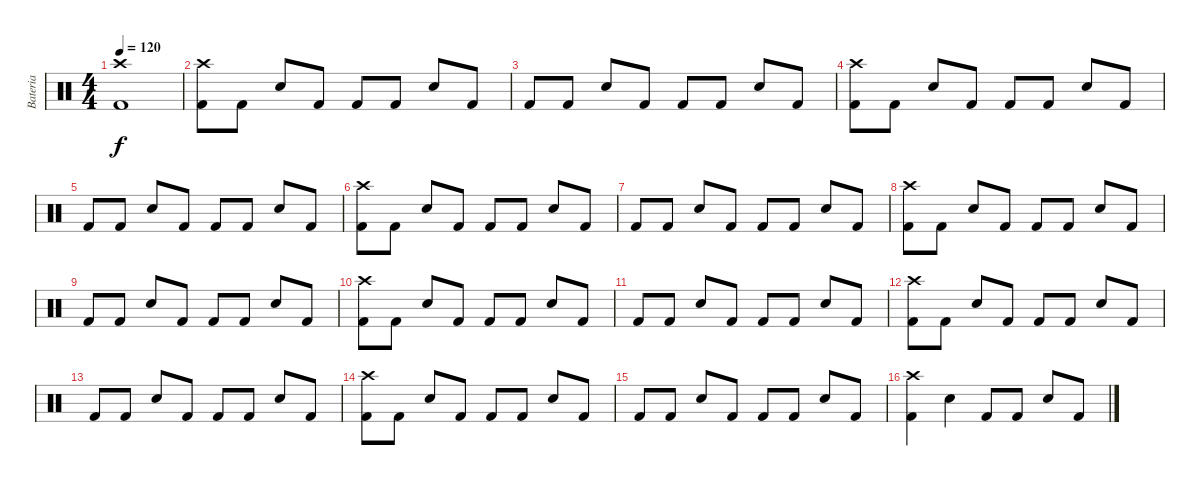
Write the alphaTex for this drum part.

\track ("Bateria" "Bateria") {instrument percussion}
\staff {score}
\articulation defaults
\ts (4 4)
\tempo 120
\clef neutral
\ks c
("Kick (hit) 2" "Crash high (hit)").1{dy f} |
("Kick (hit) 2" "Crash high (hit)").8 "Kick (hit) 2".8 "Snare (hit) 2".8 "Kick (hit) 2".8 "Kick (hit) 2".8 "Kick (hit) 2".8 "Snare (hit) 2".8 "Kick (hit) 2".8 |
"Kick (hit) 2".8 "Kick (hit) 2".8 "Snare (hit) 2".8 "Kick (hit) 2".8 "Kick (hit) 2".8 "Kick (hit) 2".8 "Snare (hit) 2".8 "Kick (hit) 2".8 |
("Kick (hit) 2" "Crash high (hit)").8 "Kick (hit) 2".8 "Snare (hit) 2".8 "Kick (hit) 2".8 "Kick (hit) 2".8 "Kick (hit) 2".8 "Snare (hit) 2".8 "Kick (hit) 2".8 |
"Kick (hit) 2".8 "Kick (hit) 2".8 "Snare (hit) 2".8 "Kick (hit) 2".8 "Kick (hit) 2".8 "Kick (hit) 2".8 "Snare (hit) 2".8 "Kick (hit) 2".8 |
("Kick (hit) 2" "Crash high (hit)").8 "Kick (hit) 2".8 "Snare (hit) 2".8 "Kick (hit) 2".8 "Kick (hit) 2".8 "Kick (hit) 2".8 "Snare (hit) 2".8 "Kick (hit) 2".8 |
"Kick (hit) 2".8 "Kick (hit) 2".8 "Snare (hit) 2".8 "Kick (hit) 2".8 "Kick (hit) 2".8 "Kick (hit) 2".8 "Snare (hit) 2".8 "Kick (hit) 2".8 |
("Kick (hit) 2" "Crash high (hit)").8 "Kick (hit) 2".8 "Snare (hit) 2".8 "Kick (hit) 2".8 "Kick (hit) 2".8 "Kick (hit) 2".8 "Snare (hit) 2".8 "Kick (hit) 2".8 |
"Kick (hit) 2".8 "Kick (hit) 2".8 "Snare (hit) 2".8 "Kick (hit) 2".8 "Kick (hit) 2".8 "Kick (hit) 2".8 "Snare (hit) 2".8 "Kick (hit) 2".8 |
("Kick (hit) 2" "Crash high (hit)").8 "Kick (hit) 2".8 "Snare (hit) 2".8 "Kick (hit) 2".8 "Kick (hit) 2".8 "Kick (hit) 2".8 "Snare (hit) 2".8 "Kick (hit) 2".8 |
"Kick (hit) 2".8 "Kick (hit) 2".8 "Snare (hit) 2".8 "Kick (hit) 2".8 "Kick (hit) 2".8 "Kick (hit) 2".8 "Snare (hit) 2".8 "Kick (hit) 2".8 |
("Kick (hit) 2" "Crash high (hit)").8 "Kick (hit) 2".8 "Snare (hit) 2".8 "Kick (hit) 2".8 "Kick (hit) 2".8 "Kick (hit) 2".8 "Snare (hit) 2".8 "Kick (hit) 2".8 |
"Kick (hit) 2".8 "Kick (hit) 2".8 "Snare (hit) 2".8 "Kick (hit) 2".8 "Kick (hit) 2".8 "Kick (hit) 2".8 "Snare (hit) 2".8 "Kick (hit) 2".8 |
("Kick (hit) 2" "Crash high (hit)").8 "Kick (hit) 2".8 "Snare (hit) 2".8 "Kick (hit) 2".8 "Kick (hit) 2".8 "Kick (hit) 2".8 "Snare (hit) 2".8 "Kick (hit) 2".8 |
"Kick (hit) 2".8 "Kick (hit) 2".8 "Snare (hit) 2".8 "Kick (hit) 2".8 "Kick (hit) 2".8 "Kick (hit) 2".8 "Snare (hit) 2".8 "Kick (hit) 2".8 |
("Kick (hit) 2" "Crash high (hit)").4 "Snare (hit) 2".4 "Kick (hit) 2".8 "Kick (hit) 2".8 "Snare (hit) 2".8 "Kick (hit) 2".8
